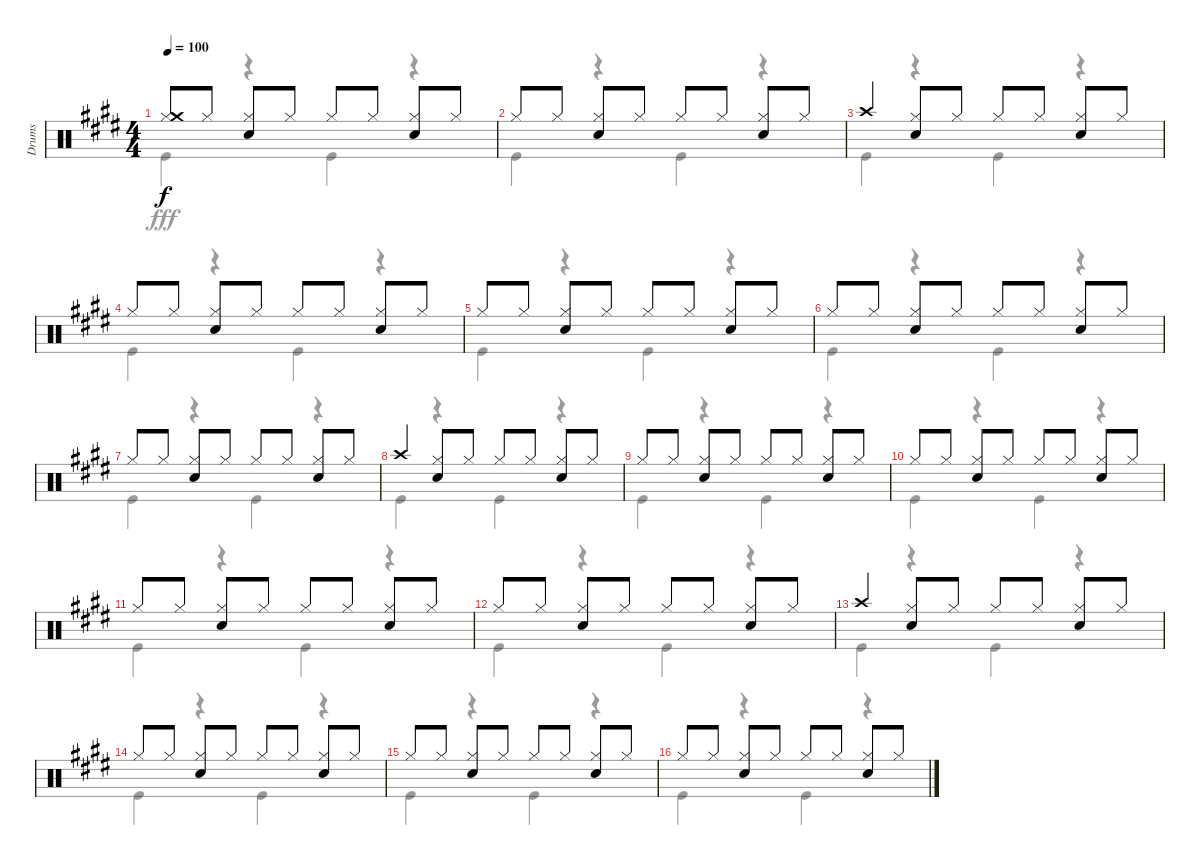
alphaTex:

\track ("Drums" "Drums") {instrument percussion}
\staff {score}
\articulation defaults
\voice
\ts (4 4)
\tempo 100
\clef neutral
\ks e
("Hi-Hat (closed)" "Crash medium (hit)").8{dy f} "Hi-Hat (closed)".8 ("Hi-Hat (closed)" "Snare (hit) 2").8 "Hi-Hat (closed)".8 "Hi-Hat (closed)".8 "Hi-Hat (closed)".8 ("Hi-Hat (closed)" "Snare (hit) 2").8 "Hi-Hat (closed)".8 |
"Hi-Hat (closed)".8 "Hi-Hat (closed)".8 ("Hi-Hat (closed)" "Snare (hit) 2").8 "Hi-Hat (closed)".8 "Hi-Hat (closed)".8 "Hi-Hat (closed)".8 ("Hi-Hat (closed)" "Snare (hit) 2").8 "Hi-Hat (closed)".8 |
"Crash high (hit)".4 ("Hi-Hat (closed)" "Snare (hit) 2").8 "Hi-Hat (closed)".8 "Hi-Hat (closed)".8 "Hi-Hat (closed)".8 ("Hi-Hat (closed)" "Snare (hit) 2").8 "Hi-Hat (closed)".8 |
"Hi-Hat (closed)".8 "Hi-Hat (closed)".8 ("Hi-Hat (closed)" "Snare (hit) 2").8 "Hi-Hat (closed)".8 "Hi-Hat (closed)".8 "Hi-Hat (closed)".8 ("Hi-Hat (closed)" "Snare (hit) 2").8 "Hi-Hat (closed)".8 |
"Hi-Hat (closed)".8 "Hi-Hat (closed)".8 ("Hi-Hat (closed)" "Snare (hit) 2").8 "Hi-Hat (closed)".8 "Hi-Hat (closed)".8 "Hi-Hat (closed)".8 ("Hi-Hat (closed)" "Snare (hit) 2").8 "Hi-Hat (closed)".8 |
"Hi-Hat (closed)".8 "Hi-Hat (closed)".8 ("Hi-Hat (closed)" "Snare (hit) 2").8 "Hi-Hat (closed)".8 "Hi-Hat (closed)".8 "Hi-Hat (closed)".8 ("Hi-Hat (closed)" "Snare (hit) 2").8 "Hi-Hat (closed)".8 |
"Hi-Hat (closed)".8 "Hi-Hat (closed)".8 ("Hi-Hat (closed)" "Snare (hit) 2").8 "Hi-Hat (closed)".8 "Hi-Hat (closed)".8 "Hi-Hat (closed)".8 ("Hi-Hat (closed)" "Snare (hit) 2").8 "Hi-Hat (closed)".8 |
"Crash high (hit)".4 ("Hi-Hat (closed)" "Snare (hit) 2").8 "Hi-Hat (closed)".8 "Hi-Hat (closed)".8 "Hi-Hat (closed)".8 ("Hi-Hat (closed)" "Snare (hit) 2").8 "Hi-Hat (closed)".8 |
"Hi-Hat (closed)".8 "Hi-Hat (closed)".8 ("Hi-Hat (closed)" "Snare (hit) 2").8 "Hi-Hat (closed)".8 "Hi-Hat (closed)".8 "Hi-Hat (closed)".8 ("Hi-Hat (closed)" "Snare (hit) 2").8 "Hi-Hat (closed)".8 |
"Hi-Hat (closed)".8 "Hi-Hat (closed)".8 ("Hi-Hat (closed)" "Snare (hit) 2").8 "Hi-Hat (closed)".8 "Hi-Hat (closed)".8 "Hi-Hat (closed)".8 ("Hi-Hat (closed)" "Snare (hit) 2").8 "Hi-Hat (closed)".8 |
"Hi-Hat (closed)".8 "Hi-Hat (closed)".8 ("Hi-Hat (closed)" "Snare (hit) 2").8 "Hi-Hat (closed)".8 "Hi-Hat (closed)".8 "Hi-Hat (closed)".8 ("Hi-Hat (closed)" "Snare (hit) 2").8 "Hi-Hat (closed)".8 |
"Hi-Hat (closed)".8 "Hi-Hat (closed)".8 ("Hi-Hat (closed)" "Snare (hit) 2").8 "Hi-Hat (closed)".8 "Hi-Hat (closed)".8 "Hi-Hat (closed)".8 ("Hi-Hat (closed)" "Snare (hit) 2").8 "Hi-Hat (closed)".8 |
"Crash high (hit)".4 ("Hi-Hat (closed)" "Snare (hit) 2").8 "Hi-Hat (closed)".8 "Hi-Hat (closed)".8 "Hi-Hat (closed)".8 ("Hi-Hat (closed)" "Snare (hit) 2").8 "Hi-Hat (closed)".8 |
"Hi-Hat (closed)".8 "Hi-Hat (closed)".8 ("Hi-Hat (closed)" "Snare (hit) 2").8 "Hi-Hat (closed)".8 "Hi-Hat (closed)".8 "Hi-Hat (closed)".8 ("Hi-Hat (closed)" "Snare (hit) 2").8 "Hi-Hat (closed)".8 |
"Hi-Hat (closed)".8 "Hi-Hat (closed)".8 ("Hi-Hat (closed)" "Snare (hit) 2").8 "Hi-Hat (closed)".8 "Hi-Hat (closed)".8 "Hi-Hat (closed)".8 ("Hi-Hat (closed)" "Snare (hit) 2").8 "Hi-Hat (closed)".8 |
"Hi-Hat (closed)".8 "Hi-Hat (closed)".8 ("Hi-Hat (closed)" "Snare (hit) 2").8 "Hi-Hat (closed)".8 "Hi-Hat (closed)".8 "Hi-Hat (closed)".8 ("Hi-Hat (closed)" "Snare (hit) 2").8 "Hi-Hat (closed)".8
\voice
\clef neutral
\ottava regular
\simile none
\ks e "Kick (hit)".4{dy fff}
r.4 "Kick (hit)".4 r.4 |
"Kick (hit)".4 r.4 "Kick (hit)".4 r.4 |
"Kick (hit)".4 r.4 "Kick (hit)".4 r.4 |
"Kick (hit)".4 r.4 "Kick (hit)".4 r.4 |
"Kick (hit)".4 r.4 "Kick (hit)".4 r.4 |
"Kick (hit)".4 r.4 "Kick (hit)".4 r.4 |
"Kick (hit)".4 r.4 "Kick (hit)".4 r.4 |
"Kick (hit)".4 r.4 "Kick (hit)".4 r.4 |
"Kick (hit)".4 r.4 "Kick (hit)".4 r.4 |
"Kick (hit)".4 r.4 "Kick (hit)".4 r.4 |
"Kick (hit)".4 r.4 "Kick (hit)".4 r.4 |
"Kick (hit)".4 r.4 "Kick (hit)".4 r.4 |
"Kick (hit)".4 r.4 "Kick (hit)".4 r.4 |
"Kick (hit)".4 r.4 "Kick (hit)".4 r.4 |
"Kick (hit)".4 r.4 "Kick (hit)".4 r.4 |
"Kick (hit)".4 r.4 "Kick (hit)".4 r.4
